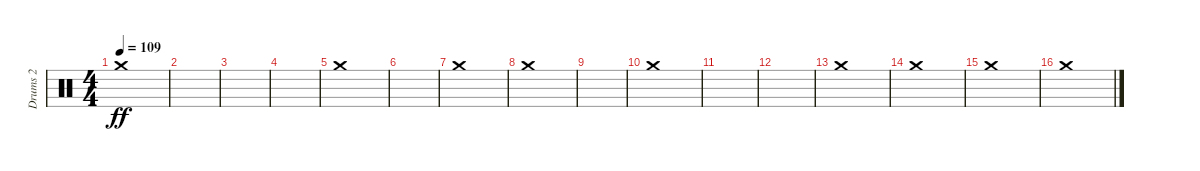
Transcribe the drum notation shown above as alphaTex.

\track ("Drums 2" "Drums 2") {instrument percussion}
\staff {score}
\articulation defaults
\ts (4 4)
\tempo 109
\clef neutral
\ks c "Crash medium (hit)".1{dy ff}
|
|
|
|
"Crash medium (hit)".1 |
|
"Crash medium (hit)".1 |
"Crash medium (hit)".1 |
|
"Crash medium (hit)".1 |
|
|
"Crash medium (hit)".1 |
"Crash medium (hit)".1 |
"Crash medium (hit)".1 |
"Crash medium (hit)".1
